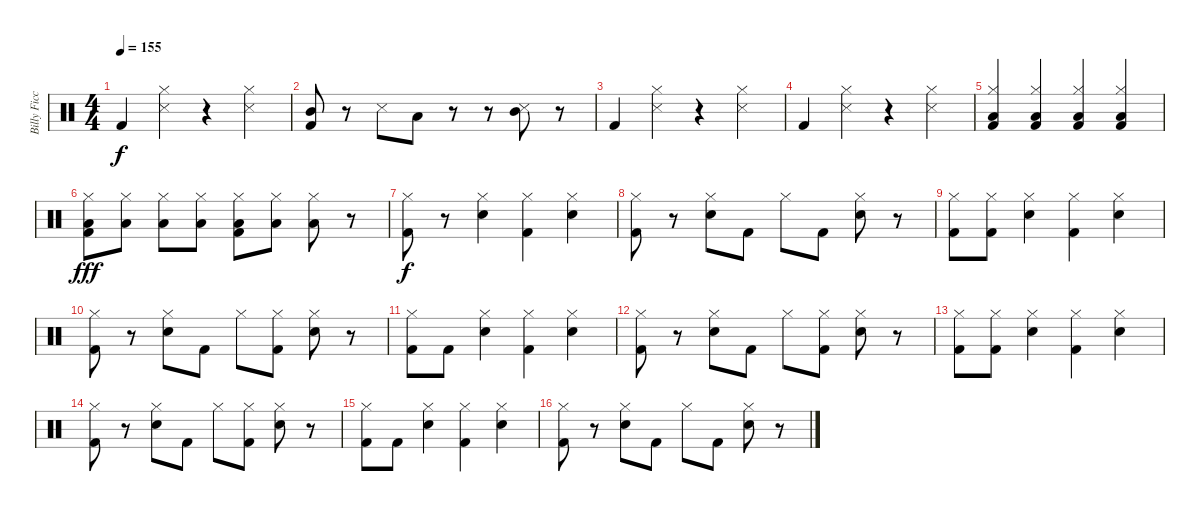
\track ("Billy Ficca" "Billy Ficc") {instrument percussion}
\staff {score}
\articulation defaults
\ts (4 4)
\tempo 155
\clef neutral
\ks c "Kick (hit) 2".4{dy f}
("Hi-Hat (closed)" "Snare (side stick) 3").4 r.4 ("Hi-Hat (closed)" "Snare (side stick) 3").4 |
("Mid Tom (hit)" "Kick (hit) 2").8 r.8 "Snare (side stick) 3".8 "Low Tom (hit)".8 r.8 r.8 ("Snare (side stick) 3" "Mid Tom (hit)").8 r.8 |
"Kick (hit) 2".4 ("Hi-Hat (closed)" "Snare (side stick) 3").4 r.4 ("Hi-Hat (closed)" "Snare (side stick) 3").4 |
"Kick (hit) 2".4 ("Hi-Hat (closed)" "Snare (side stick) 3").4 r.4 ("Hi-Hat (closed)" "Snare (side stick) 3").4 |
("Hi-Hat (closed)" "Low Tom (hit)" "Kick (hit) 2").4 ("Hi-Hat (closed)" "Low Tom (hit)" "Kick (hit) 2").4 ("Hi-Hat (closed)" "Low Tom (hit)" "Kick (hit) 2").4 ("Hi-Hat (closed)" "Low Tom (hit)" "Kick (hit) 2").4 |
("Hi-Hat (closed)" "Low Tom (hit)" "Kick (hit) 2").8{dy fff} ("Hi-Hat (closed)" "Low Tom (hit)").8 ("Hi-Hat (closed)" "Low Tom (hit)").8 ("Hi-Hat (closed)" "Low Tom (hit)").8 ("Hi-Hat (closed)" "Low Tom (hit)" "Kick (hit) 2").8 ("Hi-Hat (closed)" "Low Tom (hit)").8 ("Hi-Hat (closed)" "Low Tom (hit)").8 r.8 |
("Hi-Hat (closed)" "Kick (hit) 2").8{dy f} r.8 ("Hi-Hat (closed)" "Electric Snare (hit)").4 ("Hi-Hat (closed)" "Kick (hit) 2").4 ("Hi-Hat (closed)" "Electric Snare (hit)").4 |
("Hi-Hat (closed)" "Kick (hit) 2").8 r.8 ("Hi-Hat (closed)" "Electric Snare (hit)").8 "Kick (hit) 2".8 "Hi-Hat (closed)".8 "Kick (hit) 2".8 ("Hi-Hat (closed)" "Electric Snare (hit)").8 r.8 |
("Hi-Hat (closed)" "Kick (hit) 2").8 ("Hi-Hat (closed)" "Kick (hit) 2").8 ("Hi-Hat (closed)" "Electric Snare (hit)").4 ("Hi-Hat (closed)" "Kick (hit) 2").4 ("Hi-Hat (closed)" "Electric Snare (hit)").4 |
("Hi-Hat (closed)" "Kick (hit) 2").8 r.8 ("Hi-Hat (closed)" "Electric Snare (hit)").8 "Kick (hit) 2".8 "Hi-Hat (closed)".8 ("Hi-Hat (closed)" "Kick (hit) 2").8 ("Hi-Hat (closed)" "Electric Snare (hit)").8 r.8 |
("Hi-Hat (closed)" "Kick (hit) 2").8 "Kick (hit) 2".8 ("Hi-Hat (closed)" "Electric Snare (hit)").4 ("Hi-Hat (closed)" "Kick (hit) 2").4 ("Hi-Hat (closed)" "Electric Snare (hit)").4 |
("Hi-Hat (closed)" "Kick (hit) 2").8 r.8 ("Hi-Hat (closed)" "Electric Snare (hit)").8 "Kick (hit) 2".8 "Hi-Hat (closed)".8 ("Hi-Hat (closed)" "Kick (hit) 2").8 ("Hi-Hat (closed)" "Electric Snare (hit)").8 r.8 |
("Hi-Hat (closed)" "Kick (hit) 2").8 ("Hi-Hat (closed)" "Kick (hit) 2").8 ("Hi-Hat (closed)" "Electric Snare (hit)").4 ("Hi-Hat (closed)" "Kick (hit) 2").4 ("Hi-Hat (closed)" "Electric Snare (hit)").4 |
("Hi-Hat (closed)" "Kick (hit) 2").8 r.8 ("Hi-Hat (closed)" "Electric Snare (hit)").8 "Kick (hit) 2".8 "Hi-Hat (closed)".8 ("Hi-Hat (closed)" "Kick (hit) 2").8 ("Hi-Hat (closed)" "Electric Snare (hit)").8 r.8 |
("Hi-Hat (closed)" "Kick (hit) 2").8 "Kick (hit) 2".8 ("Hi-Hat (closed)" "Electric Snare (hit)").4 ("Hi-Hat (closed)" "Kick (hit) 2").4 ("Hi-Hat (closed)" "Electric Snare (hit)").4 |
("Hi-Hat (closed)" "Kick (hit) 2").8 r.8 ("Hi-Hat (closed)" "Electric Snare (hit)").8 "Kick (hit) 2".8 "Hi-Hat (closed)".8 "Kick (hit) 2".8 ("Hi-Hat (closed)" "Electric Snare (hit)").8 r.8
